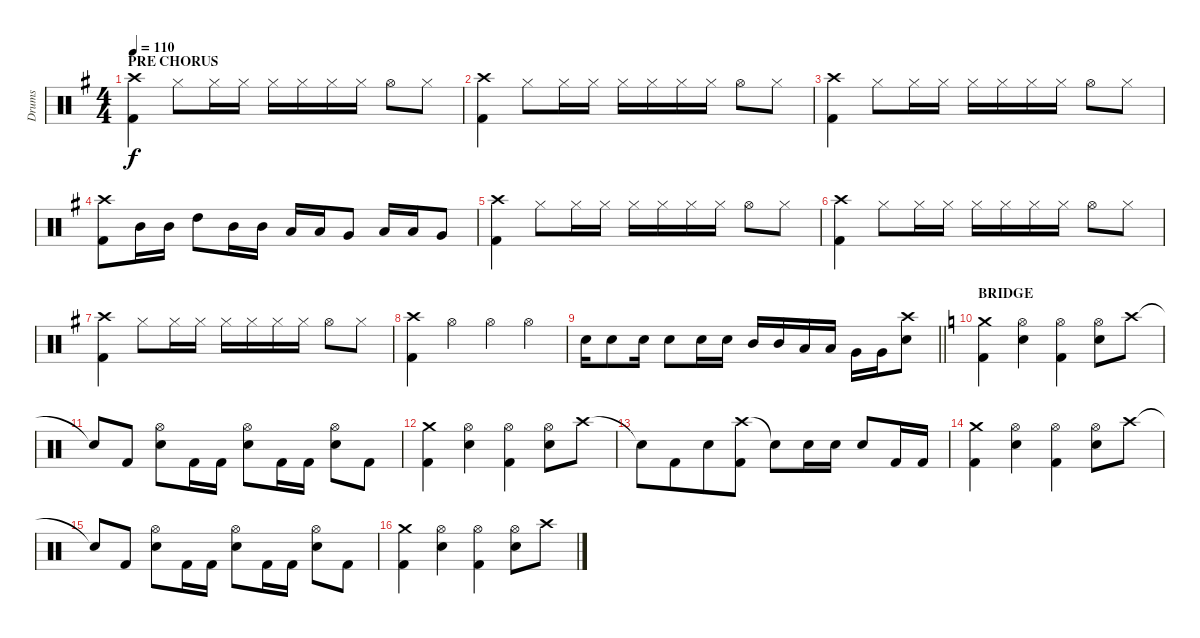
\track ("Drums" "Drums") {instrument percussion}
\staff {score}
\articulation defaults
\ts (4 4)
\section ("" "PRE CHORUS")
\tempo 110
\clef neutral
\ks eminor
("Crash high (hit)" "Kick (hit) 2").4{dy f} "Hi-Hat (closed)".8 "Hi-Hat (closed)".16 "Hi-Hat (closed)".16 "Hi-Hat (closed)".16 "Hi-Hat (closed)".16 "Hi-Hat (closed)".16 "Hi-Hat (closed)".16 "Hi-Hat (open)".8 "Hi-Hat (closed)".8 |
("Crash high (hit)" "Kick (hit) 2").4 "Hi-Hat (closed)".8 "Hi-Hat (closed)".16 "Hi-Hat (closed)".16 "Hi-Hat (closed)".16 "Hi-Hat (closed)".16 "Hi-Hat (closed)".16 "Hi-Hat (closed)".16 "Hi-Hat (open)".8 "Hi-Hat (closed)".8 |
("Crash high (hit)" "Kick (hit) 2").4 "Hi-Hat (closed)".8 "Hi-Hat (closed)".16 "Hi-Hat (closed)".16 "Hi-Hat (closed)".16 "Hi-Hat (closed)".16 "Hi-Hat (closed)".16 "Hi-Hat (closed)".16 "Hi-Hat (open)".8 "Hi-Hat (closed)".8 |
("Crash high (hit)" "Kick (hit) 2").8 "Mid Tom (hit)".16 "Mid Tom (hit)".16 "High Tom (hit)".8 "Mid Tom (hit)".16 "Mid Tom (hit)".16 "Low Tom (hit)".16 "Low Tom (hit)".16 "Very Low Tom (hit)".8 "Low Tom (hit)".16 "Low Tom (hit)".16 "Very Low Tom (hit)".8 |
("Crash high (hit)" "Kick (hit) 2").4 "Hi-Hat (closed)".8 "Hi-Hat (closed)".16 "Hi-Hat (closed)".16 "Hi-Hat (closed)".16 "Hi-Hat (closed)".16 "Hi-Hat (closed)".16 "Hi-Hat (closed)".16 "Hi-Hat (open)".8 "Hi-Hat (closed)".8 |
("Crash high (hit)" "Kick (hit) 2").4 "Hi-Hat (closed)".8 "Hi-Hat (closed)".16 "Hi-Hat (closed)".16 "Hi-Hat (closed)".16 "Hi-Hat (closed)".16 "Hi-Hat (closed)".16 "Hi-Hat (closed)".16 "Hi-Hat (open)".8 "Hi-Hat (closed)".8 |
("Crash high (hit)" "Kick (hit) 2").4 "Hi-Hat (closed)".8 "Hi-Hat (closed)".16 "Hi-Hat (closed)".16 "Hi-Hat (closed)".16 "Hi-Hat (closed)".16 "Hi-Hat (closed)".16 "Hi-Hat (closed)".16 "Hi-Hat (open)".8 "Hi-Hat (closed)".8 |
("Crash high (hit)" "Kick (hit) 2").4 "Hi-Hat (open)".4 "Hi-Hat (open)".4 "Hi-Hat (open)".4 |
\barLineRight lightlight "Electric Snare (hit)".16 "Electric Snare (hit)".8 "Electric Snare (hit)".16 "Electric Snare (hit)".8 "Electric Snare (hit)".16 "Electric Snare (hit)".16 "Mid Tom (hit)".16 "Mid Tom (hit)".16 "Low Tom (hit)".16 "Low Tom (hit)".16 "Very Low Tom (hit)".16 "Very Low Tom (hit)".16
("Crash high (hit)" "Electric Snare (hit)").8 |
\section ("" "BRIDGE")
\ks aminor
("Crash medium (hit)" "Kick (hit) 2").4 ("Hi-Hat (open)" "Electric Snare (hit)").4 ("Hi-Hat (open)" "Kick (hit) 2").4 ("Hi-Hat (open)" "Electric Snare (hit)").8 "Crash high (hit)".8 |
"Snare (hit)"{t}.8 "Kick (hit) 2".8 ("Hi-Hat (open)" "Electric Snare (hit)").8 "Kick (hit) 2".16 "Kick (hit) 2".16 ("Hi-Hat (open)" "Electric Snare (hit)").8 "Kick (hit) 2".16 "Kick (hit) 2".16 ("Hi-Hat (open)" "Electric Snare (hit)").8 "Kick (hit) 2".8 |
("Crash medium (hit)" "Kick (hit) 2").4 ("Hi-Hat (open)" "Electric Snare (hit)").4 ("Hi-Hat (open)" "Kick (hit) 2").4 ("Hi-Hat (open)" "Electric Snare (hit)").8 "Crash high (hit)".8 |
"Snare (hit)"{t}.8 "Kick (hit) 2".8{beam merge} "Electric Snare (hit)".8 ("Crash high (hit)" "Kick (hit) 2").8 "Snare (hit)"{t}.8 "Electric Snare (hit)".16 "Electric Snare (hit)".16 "Electric Snare (hit)".8 "Kick (hit) 2".16 "Kick (hit) 2".16 |
("Crash medium (hit)" "Kick (hit) 2").4 ("Hi-Hat (open)" "Electric Snare (hit)").4 ("Hi-Hat (open)" "Kick (hit) 2").4 ("Hi-Hat (open)" "Electric Snare (hit)").8 "Crash high (hit)".8 |
"Snare (hit)"{t}.8 "Kick (hit) 2".8 ("Hi-Hat (open)" "Electric Snare (hit)").8 "Kick (hit) 2".16 "Kick (hit) 2".16 ("Hi-Hat (open)" "Electric Snare (hit)").8 "Kick (hit) 2".16 "Kick (hit) 2".16 ("Hi-Hat (open)" "Electric Snare (hit)").8 "Kick (hit) 2".8 |
("Crash medium (hit)" "Kick (hit) 2").4 ("Hi-Hat (open)" "Electric Snare (hit)").4 ("Hi-Hat (open)" "Kick (hit) 2").4 ("Hi-Hat (open)" "Electric Snare (hit)").8 "Crash high (hit)".8
